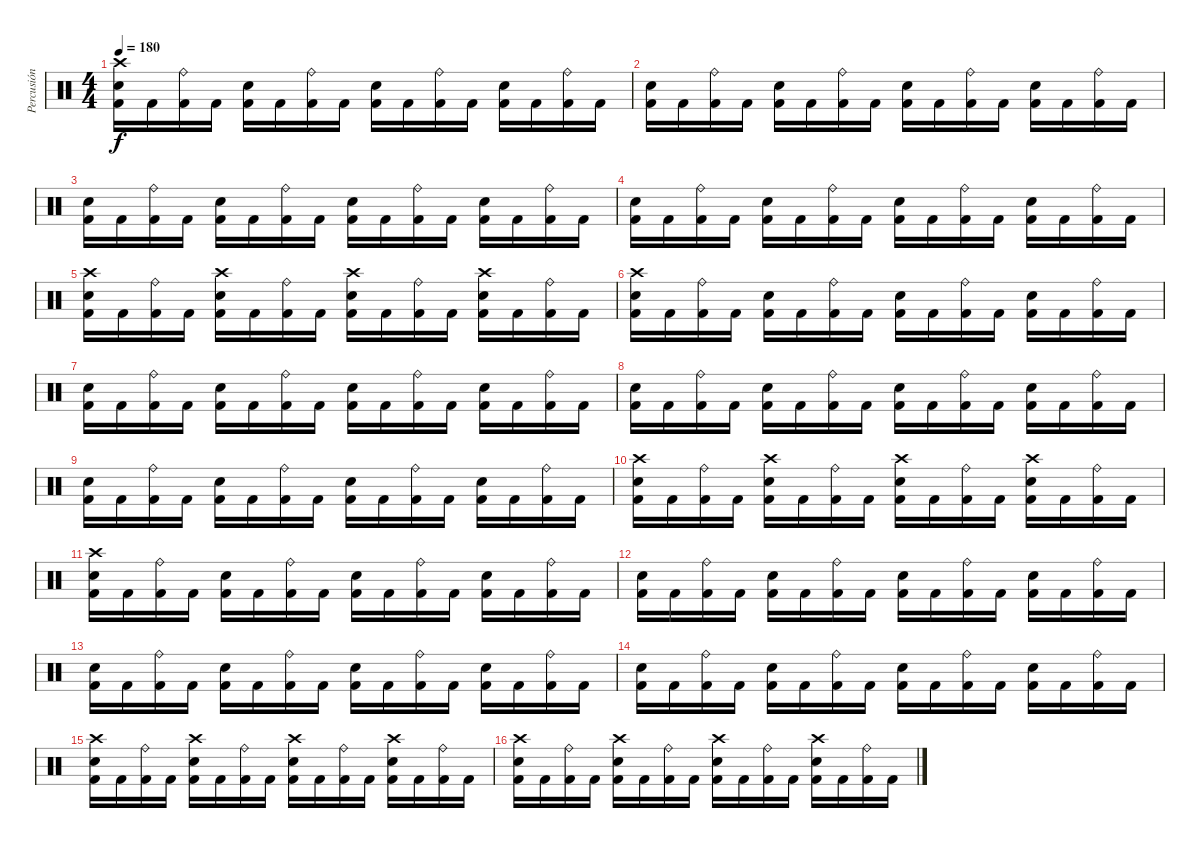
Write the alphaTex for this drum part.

\track ("Percusión" "Percusión") {instrument percussion}
\staff {score}
\articulation defaults
\ts (4 4)
\tempo 180
\clef neutral
\ks c
("Snare (hit) 2" "Crash high (hit)" "Kick (hit) 2").16{dy f} "Kick (hit) 2".16 ("Ride (bell)" "Kick (hit) 2").16 "Kick (hit) 2".16 ("Snare (hit) 2" "Kick (hit) 2").16 "Kick (hit) 2".16 ("Ride (bell)" "Kick (hit) 2").16 "Kick (hit) 2".16 ("Snare (hit) 2" "Kick (hit) 2").16 "Kick (hit) 2".16 ("Ride (bell)" "Kick (hit) 2").16 "Kick (hit) 2".16 ("Snare (hit) 2" "Kick (hit) 2").16 "Kick (hit) 2".16 ("Ride (bell)" "Kick (hit) 2").16 "Kick (hit) 2".16 |
("Snare (hit) 2" "Kick (hit) 2").16 "Kick (hit) 2".16 ("Ride (bell)" "Kick (hit) 2").16 "Kick (hit) 2".16 ("Snare (hit) 2" "Kick (hit) 2").16 "Kick (hit) 2".16 ("Ride (bell)" "Kick (hit) 2").16 "Kick (hit) 2".16 ("Snare (hit) 2" "Kick (hit) 2").16 "Kick (hit) 2".16 ("Ride (bell)" "Kick (hit) 2").16 "Kick (hit) 2".16 ("Snare (hit) 2" "Kick (hit) 2").16 "Kick (hit) 2".16 ("Ride (bell)" "Kick (hit) 2").16 "Kick (hit) 2".16 |
("Snare (hit) 2" "Kick (hit) 2").16 "Kick (hit) 2".16 ("Ride (bell)" "Kick (hit) 2").16 "Kick (hit) 2".16 ("Snare (hit) 2" "Kick (hit) 2").16 "Kick (hit) 2".16 ("Ride (bell)" "Kick (hit) 2").16 "Kick (hit) 2".16 ("Snare (hit) 2" "Kick (hit) 2").16 "Kick (hit) 2".16 ("Ride (bell)" "Kick (hit) 2").16 "Kick (hit) 2".16 ("Snare (hit) 2" "Kick (hit) 2").16 "Kick (hit) 2".16 ("Ride (bell)" "Kick (hit) 2").16 "Kick (hit) 2".16 |
("Snare (hit) 2" "Kick (hit) 2").16 "Kick (hit) 2".16 ("Ride (bell)" "Kick (hit) 2").16 "Kick (hit) 2".16 ("Snare (hit) 2" "Kick (hit) 2").16 "Kick (hit) 2".16 ("Ride (bell)" "Kick (hit) 2").16 "Kick (hit) 2".16 ("Snare (hit) 2" "Kick (hit) 2").16 "Kick (hit) 2".16 ("Ride (bell)" "Kick (hit) 2").16 "Kick (hit) 2".16 ("Snare (hit) 2" "Kick (hit) 2").16 "Kick (hit) 2".16 ("Ride (bell)" "Kick (hit) 2").16 "Kick (hit) 2".16 |
("Snare (hit) 2" "Crash high (hit)" "Kick (hit) 2").16 "Kick (hit) 2".16 ("Ride (bell)" "Kick (hit) 2").16 "Kick (hit) 2".16 ("Snare (hit) 2" "Crash high (hit)" "Kick (hit) 2").16 "Kick (hit) 2".16 ("Ride (bell)" "Kick (hit) 2").16 "Kick (hit) 2".16 ("Snare (hit) 2" "Crash high (hit)" "Kick (hit) 2").16 "Kick (hit) 2".16 ("Ride (bell)" "Kick (hit) 2").16 "Kick (hit) 2".16 ("Snare (hit) 2" "Crash high (hit)" "Kick (hit) 2").16 "Kick (hit) 2".16 ("Ride (bell)" "Kick (hit) 2").16 "Kick (hit) 2".16 |
("Snare (hit) 2" "Crash high (hit)" "Kick (hit) 2").16 "Kick (hit) 2".16 ("Ride (bell)" "Kick (hit) 2").16 "Kick (hit) 2".16 ("Snare (hit) 2" "Kick (hit) 2").16 "Kick (hit) 2".16 ("Ride (bell)" "Kick (hit) 2").16 "Kick (hit) 2".16 ("Snare (hit) 2" "Kick (hit) 2").16 "Kick (hit) 2".16 ("Ride (bell)" "Kick (hit) 2").16 "Kick (hit) 2".16 ("Snare (hit) 2" "Kick (hit) 2").16 "Kick (hit) 2".16 ("Ride (bell)" "Kick (hit) 2").16 "Kick (hit) 2".16 |
("Snare (hit) 2" "Kick (hit) 2").16 "Kick (hit) 2".16 ("Ride (bell)" "Kick (hit) 2").16 "Kick (hit) 2".16 ("Snare (hit) 2" "Kick (hit) 2").16 "Kick (hit) 2".16 ("Ride (bell)" "Kick (hit) 2").16 "Kick (hit) 2".16 ("Snare (hit) 2" "Kick (hit) 2").16 "Kick (hit) 2".16 ("Ride (bell)" "Kick (hit) 2").16 "Kick (hit) 2".16 ("Snare (hit) 2" "Kick (hit) 2").16 "Kick (hit) 2".16 ("Ride (bell)" "Kick (hit) 2").16 "Kick (hit) 2".16 |
("Snare (hit) 2" "Kick (hit) 2").16 "Kick (hit) 2".16 ("Ride (bell)" "Kick (hit) 2").16 "Kick (hit) 2".16 ("Snare (hit) 2" "Kick (hit) 2").16 "Kick (hit) 2".16 ("Ride (bell)" "Kick (hit) 2").16 "Kick (hit) 2".16 ("Snare (hit) 2" "Kick (hit) 2").16 "Kick (hit) 2".16 ("Ride (bell)" "Kick (hit) 2").16 "Kick (hit) 2".16 ("Snare (hit) 2" "Kick (hit) 2").16 "Kick (hit) 2".16 ("Ride (bell)" "Kick (hit) 2").16 "Kick (hit) 2".16 |
("Snare (hit) 2" "Kick (hit) 2").16 "Kick (hit) 2".16 ("Ride (bell)" "Kick (hit) 2").16 "Kick (hit) 2".16 ("Snare (hit) 2" "Kick (hit) 2").16 "Kick (hit) 2".16 ("Ride (bell)" "Kick (hit) 2").16 "Kick (hit) 2".16 ("Snare (hit) 2" "Kick (hit) 2").16 "Kick (hit) 2".16 ("Ride (bell)" "Kick (hit) 2").16 "Kick (hit) 2".16 ("Snare (hit) 2" "Kick (hit) 2").16 "Kick (hit) 2".16 ("Ride (bell)" "Kick (hit) 2").16 "Kick (hit) 2".16 |
("Snare (hit) 2" "Crash high (hit)" "Kick (hit) 2").16 "Kick (hit) 2".16 ("Ride (bell)" "Kick (hit) 2").16 "Kick (hit) 2".16 ("Snare (hit) 2" "Crash high (hit)" "Kick (hit) 2").16 "Kick (hit) 2".16 ("Ride (bell)" "Kick (hit) 2").16 "Kick (hit) 2".16 ("Snare (hit) 2" "Crash high (hit)" "Kick (hit) 2").16 "Kick (hit) 2".16 ("Ride (bell)" "Kick (hit) 2").16 "Kick (hit) 2".16 ("Snare (hit) 2" "Crash high (hit)" "Kick (hit) 2").16 "Kick (hit) 2".16 ("Ride (bell)" "Kick (hit) 2").16 "Kick (hit) 2".16 |
("Snare (hit) 2" "Crash high (hit)" "Kick (hit) 2").16 "Kick (hit) 2".16 ("Ride (bell)" "Kick (hit) 2").16 "Kick (hit) 2".16 ("Snare (hit) 2" "Kick (hit) 2").16 "Kick (hit) 2".16 ("Ride (bell)" "Kick (hit) 2").16 "Kick (hit) 2".16 ("Snare (hit) 2" "Kick (hit) 2").16 "Kick (hit) 2".16 ("Ride (bell)" "Kick (hit) 2").16 "Kick (hit) 2".16 ("Snare (hit) 2" "Kick (hit) 2").16 "Kick (hit) 2".16 ("Ride (bell)" "Kick (hit) 2").16 "Kick (hit) 2".16 |
("Snare (hit) 2" "Kick (hit) 2").16 "Kick (hit) 2".16 ("Ride (bell)" "Kick (hit) 2").16 "Kick (hit) 2".16 ("Snare (hit) 2" "Kick (hit) 2").16 "Kick (hit) 2".16 ("Ride (bell)" "Kick (hit) 2").16 "Kick (hit) 2".16 ("Snare (hit) 2" "Kick (hit) 2").16 "Kick (hit) 2".16 ("Ride (bell)" "Kick (hit) 2").16 "Kick (hit) 2".16 ("Snare (hit) 2" "Kick (hit) 2").16 "Kick (hit) 2".16 ("Ride (bell)" "Kick (hit) 2").16 "Kick (hit) 2".16 |
("Snare (hit) 2" "Kick (hit) 2").16 "Kick (hit) 2".16 ("Ride (bell)" "Kick (hit) 2").16 "Kick (hit) 2".16 ("Snare (hit) 2" "Kick (hit) 2").16 "Kick (hit) 2".16 ("Ride (bell)" "Kick (hit) 2").16 "Kick (hit) 2".16 ("Snare (hit) 2" "Kick (hit) 2").16 "Kick (hit) 2".16 ("Ride (bell)" "Kick (hit) 2").16 "Kick (hit) 2".16 ("Snare (hit) 2" "Kick (hit) 2").16 "Kick (hit) 2".16 ("Ride (bell)" "Kick (hit) 2").16 "Kick (hit) 2".16 |
("Snare (hit) 2" "Kick (hit) 2").16 "Kick (hit) 2".16 ("Ride (bell)" "Kick (hit) 2").16 "Kick (hit) 2".16 ("Snare (hit) 2" "Kick (hit) 2").16 "Kick (hit) 2".16 ("Ride (bell)" "Kick (hit) 2").16 "Kick (hit) 2".16 ("Snare (hit) 2" "Kick (hit) 2").16 "Kick (hit) 2".16 ("Ride (bell)" "Kick (hit) 2").16 "Kick (hit) 2".16 ("Snare (hit) 2" "Kick (hit) 2").16 "Kick (hit) 2".16 ("Ride (bell)" "Kick (hit) 2").16 "Kick (hit) 2".16 |
("Snare (hit) 2" "Crash high (hit)" "Kick (hit) 2").16 "Kick (hit) 2".16 ("Ride (bell)" "Kick (hit) 2").16 "Kick (hit) 2".16 ("Snare (hit) 2" "Crash high (hit)" "Kick (hit) 2").16 "Kick (hit) 2".16 ("Ride (bell)" "Kick (hit) 2").16 "Kick (hit) 2".16 ("Snare (hit) 2" "Crash high (hit)" "Kick (hit) 2").16 "Kick (hit) 2".16 ("Ride (bell)" "Kick (hit) 2").16 "Kick (hit) 2".16 ("Snare (hit) 2" "Crash high (hit)" "Kick (hit) 2").16 "Kick (hit) 2".16 ("Ride (bell)" "Kick (hit) 2").16 "Kick (hit) 2".16 |
("Snare (hit) 2" "Crash high (hit)" "Kick (hit) 2").16 "Kick (hit) 2".16 ("Ride (bell)" "Kick (hit) 2").16 "Kick (hit) 2".16 ("Snare (hit) 2" "Crash high (hit)" "Kick (hit) 2").16 "Kick (hit) 2".16 ("Ride (bell)" "Kick (hit) 2").16 "Kick (hit) 2".16 ("Snare (hit) 2" "Crash high (hit)" "Kick (hit) 2").16 "Kick (hit) 2".16 ("Ride (bell)" "Kick (hit) 2").16 "Kick (hit) 2".16 ("Snare (hit) 2" "Crash high (hit)" "Kick (hit) 2").16 "Kick (hit) 2".16 ("Ride (bell)" "Kick (hit) 2").16 "Kick (hit) 2".16
